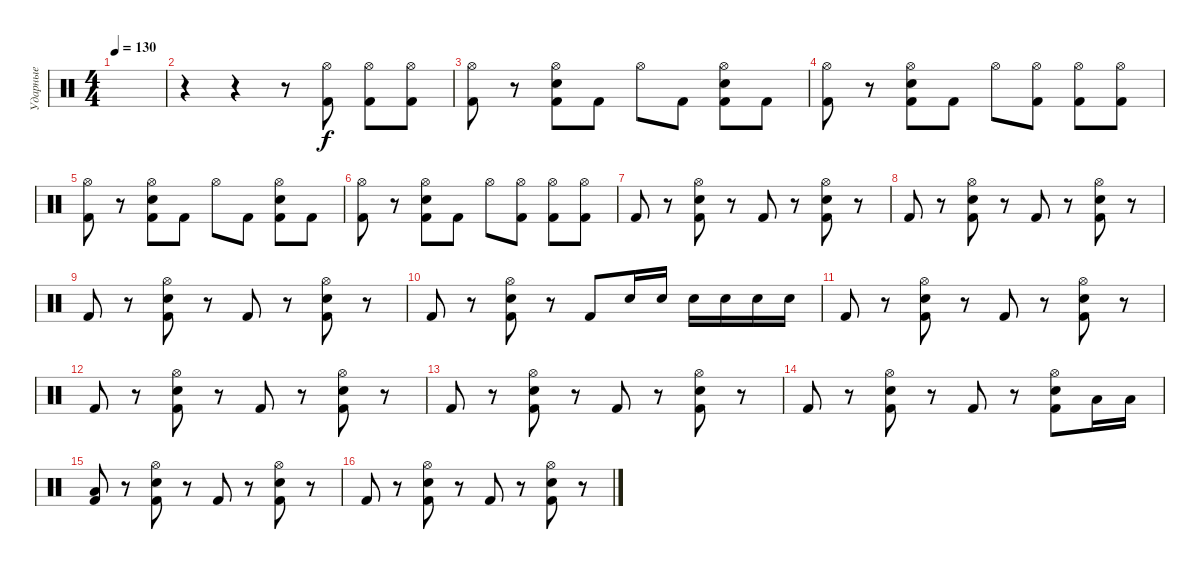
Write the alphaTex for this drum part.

\track ("Ударные" "Ударные") {instrument percussion}
\staff {score}
\articulation defaults
\ts (4 4)
\tempo 130
\clef neutral
\ks c
|
r.4 r.4 r.8 ("Hi-Hat (open)" "Kick (hit) 2").8 ("Hi-Hat (open)" "Kick (hit) 2").8 ("Hi-Hat (open)" "Kick (hit) 2").8 |
("Hi-Hat (open)" "Kick (hit) 2").8 r.8 ("Hi-Hat (open)" "Snare (hit) 2" "Kick (hit) 2").8 "Kick (hit) 2".8 "Hi-Hat (open)".8 "Kick (hit) 2".8 ("Hi-Hat (open)" "Snare (hit) 2" "Kick (hit) 2").8 "Kick (hit) 2".8 |
("Hi-Hat (open)" "Kick (hit) 2").8 r.8 ("Hi-Hat (open)" "Snare (hit) 2" "Kick (hit) 2").8 "Kick (hit) 2".8 "Hi-Hat (open)".8 ("Hi-Hat (open)" "Kick (hit) 2").8 ("Hi-Hat (open)" "Kick (hit) 2").8 ("Hi-Hat (open)" "Kick (hit) 2").8 |
("Hi-Hat (open)" "Kick (hit) 2").8 r.8 ("Hi-Hat (open)" "Snare (hit) 2" "Kick (hit) 2").8 "Kick (hit) 2".8 "Hi-Hat (open)".8 "Kick (hit) 2".8 ("Hi-Hat (open)" "Snare (hit) 2" "Kick (hit) 2").8 "Kick (hit) 2".8 |
("Hi-Hat (open)" "Kick (hit) 2").8 r.8 ("Hi-Hat (open)" "Snare (hit) 2" "Kick (hit) 2").8 "Kick (hit) 2".8 "Hi-Hat (open)".8 ("Hi-Hat (open)" "Kick (hit) 2").8 ("Hi-Hat (open)" "Kick (hit) 2").8 ("Hi-Hat (open)" "Kick (hit) 2").8 |
"Kick (hit) 2".8 r.8 ("Hi-Hat (open)" "Snare (hit) 2" "Kick (hit) 2").8 r.8 "Kick (hit) 2".8 r.8 ("Hi-Hat (open)" "Snare (hit) 2" "Kick (hit) 2").8 r.8 |
"Kick (hit) 2".8 r.8 ("Hi-Hat (open)" "Snare (hit) 2" "Kick (hit) 2").8 r.8 "Kick (hit) 2".8 r.8 ("Hi-Hat (open)" "Snare (hit) 2" "Kick (hit) 2").8 r.8 |
"Kick (hit) 2".8 r.8 ("Hi-Hat (open)" "Snare (hit) 2" "Kick (hit) 2").8 r.8 "Kick (hit) 2".8 r.8 ("Hi-Hat (open)" "Snare (hit) 2" "Kick (hit) 2").8 r.8 |
"Kick (hit) 2".8 r.8 ("Hi-Hat (open)" "Snare (hit) 2" "Kick (hit) 2").8 r.8 "Kick (hit) 2".8 "Snare (hit) 2".16 "Snare (hit) 2".16 "Snare (hit) 2".16 "Snare (hit) 2".16 "Snare (hit) 2".16 "Snare (hit) 2".16 |
"Kick (hit) 2".8 r.8 ("Hi-Hat (open)" "Snare (hit) 2" "Kick (hit) 2").8 r.8 "Kick (hit) 2".8 r.8 ("Hi-Hat (open)" "Snare (hit) 2" "Kick (hit) 2").8 r.8 |
"Kick (hit) 2".8 r.8 ("Hi-Hat (open)" "Snare (hit) 2" "Kick (hit) 2").8 r.8 "Kick (hit) 2".8 r.8 ("Hi-Hat (open)" "Snare (hit) 2" "Kick (hit) 2").8 r.8 |
"Kick (hit) 2".8 r.8 ("Hi-Hat (open)" "Snare (hit) 2" "Kick (hit) 2").8 r.8 "Kick (hit) 2".8 r.8 ("Hi-Hat (open)" "Snare (hit) 2" "Kick (hit) 2").8 r.8 |
"Kick (hit) 2".8 r.8 ("Hi-Hat (open)" "Snare (hit) 2" "Kick (hit) 2").8 r.8 "Kick (hit) 2".8 r.8 ("Hi-Hat (open)" "Snare (hit) 2" "Kick (hit) 2").8 "Low Tom (hit)".16 "Low Tom (hit)".16 |
("Low Tom (hit)" "Kick (hit) 2").8 r.8 ("Hi-Hat (open)" "Snare (hit) 2" "Kick (hit) 2").8 r.8 "Kick (hit) 2".8 r.8 ("Hi-Hat (open)" "Snare (hit) 2" "Kick (hit) 2").8 r.8 |
"Kick (hit) 2".8 r.8 ("Hi-Hat (open)" "Snare (hit) 2" "Kick (hit) 2").8 r.8 "Kick (hit) 2".8 r.8 ("Hi-Hat (open)" "Snare (hit) 2" "Kick (hit) 2").8 r.8
